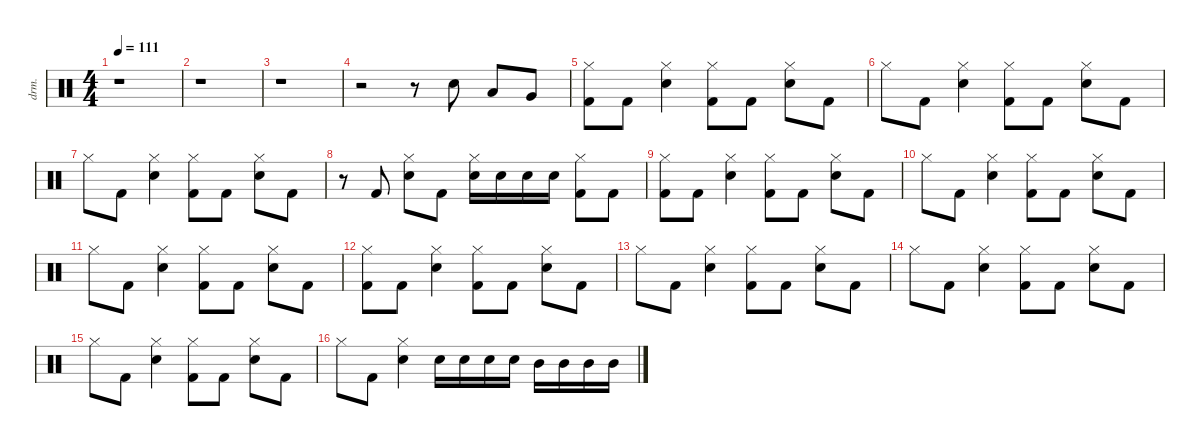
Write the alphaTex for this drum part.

\defaultSystemsLayout 4
\hideDynamics
\bracketExtendMode nobrackets
\otherSystemsTrackNameOrientation horizontal
\track ("Drums" "drm.") {instrument percussion}
\staff {score}
\articulation defaults
\ts (4 4)
\beaming (8 2 2 2 2)
\tempo 111
\clef neutral
\ks c
r.1{dy f} |
r.1 |
r.1 |
r.2 r.8 "Snare (hit) 2".8 "Low Tom (hit)".8 "Very Low Tom (hit)".8 |
("Kick (hit) 2" "Hi-Hat (closed)").8 "Kick (hit) 2".8 ("Snare (hit) 2" "Hi-Hat (closed)").4 ("Kick (hit) 2" "Hi-Hat (closed)").8 "Kick (hit) 2".8 ("Snare (hit) 2" "Hi-Hat (closed)").8 "Kick (hit) 2".8 |
"Hi-Hat (closed)".8 "Kick (hit) 2".8 ("Snare (hit) 2" "Hi-Hat (closed)").4 ("Kick (hit) 2" "Hi-Hat (closed)").8 "Kick (hit) 2".8 ("Snare (hit) 2" "Hi-Hat (closed)").8 "Kick (hit) 2".8 |
"Hi-Hat (closed)".8 "Kick (hit) 2".8 ("Snare (hit) 2" "Hi-Hat (closed)").4 ("Kick (hit) 2" "Hi-Hat (closed)").8 "Kick (hit) 2".8 ("Snare (hit) 2" "Hi-Hat (closed)").8 "Kick (hit) 2".8 |
r.8 "Kick (hit) 2".8 ("Snare (hit) 2" "Hi-Hat (closed)").8 "Kick (hit) 2".8 ("Snare (hit) 2" "Hi-Hat (closed)").16 "Snare (hit) 2".16 "Snare (hit) 2".16 "Snare (hit) 2".16 ("Kick (hit) 2" "Hi-Hat (closed)").8 "Kick (hit) 2".8 |
("Kick (hit) 2" "Hi-Hat (closed)").8 "Kick (hit) 2".8 ("Snare (hit) 2" "Hi-Hat (closed)").4 ("Kick (hit) 2" "Hi-Hat (closed)").8 "Kick (hit) 2".8 ("Snare (hit) 2" "Hi-Hat (closed)").8 "Kick (hit) 2".8 |
"Hi-Hat (closed)".8 "Kick (hit) 2".8 ("Snare (hit) 2" "Hi-Hat (closed)").4 ("Kick (hit) 2" "Hi-Hat (closed)").8 "Kick (hit) 2".8 ("Snare (hit) 2" "Hi-Hat (closed)").8 "Kick (hit) 2".8 |
"Hi-Hat (closed)".8 "Kick (hit) 2".8 ("Snare (hit) 2" "Hi-Hat (closed)").4 ("Kick (hit) 2" "Hi-Hat (closed)").8 "Kick (hit) 2".8 ("Snare (hit) 2" "Hi-Hat (closed)").8 "Kick (hit) 2".8 |
("Kick (hit) 2" "Hi-Hat (closed)").8 "Kick (hit) 2".8 ("Snare (hit) 2" "Hi-Hat (closed)").4 ("Kick (hit) 2" "Hi-Hat (closed)").8 "Kick (hit) 2".8 ("Snare (hit) 2" "Hi-Hat (closed)").8 "Kick (hit) 2".8 |
"Hi-Hat (closed)".8 "Kick (hit) 2".8 ("Snare (hit) 2" "Hi-Hat (closed)").4 ("Kick (hit) 2" "Hi-Hat (closed)").8 "Kick (hit) 2".8 ("Snare (hit) 2" "Hi-Hat (closed)").8 "Kick (hit) 2".8 |
"Hi-Hat (closed)".8 "Kick (hit) 2".8 ("Snare (hit) 2" "Hi-Hat (closed)").4 ("Kick (hit) 2" "Hi-Hat (closed)").8 "Kick (hit) 2".8 ("Snare (hit) 2" "Hi-Hat (closed)").8 "Kick (hit) 2".8 |
"Hi-Hat (closed)".8 "Kick (hit) 2".8 ("Snare (hit) 2" "Hi-Hat (closed)").4 ("Kick (hit) 2" "Hi-Hat (closed)").8 "Kick (hit) 2".8 ("Snare (hit) 2" "Hi-Hat (closed)").8 "Kick (hit) 2".8 |
"Hi-Hat (closed)".8 "Kick (hit) 2".8 ("Snare (hit) 2" "Hi-Hat (closed)").4 "Snare (hit) 2".16 "Snare (hit) 2".16 "Snare (hit) 2".16 "Snare (hit) 2".16 "Mid Tom (hit)".16 "Mid Tom (hit)".16 "Mid Tom (hit)".16 "Mid Tom (hit)".16
